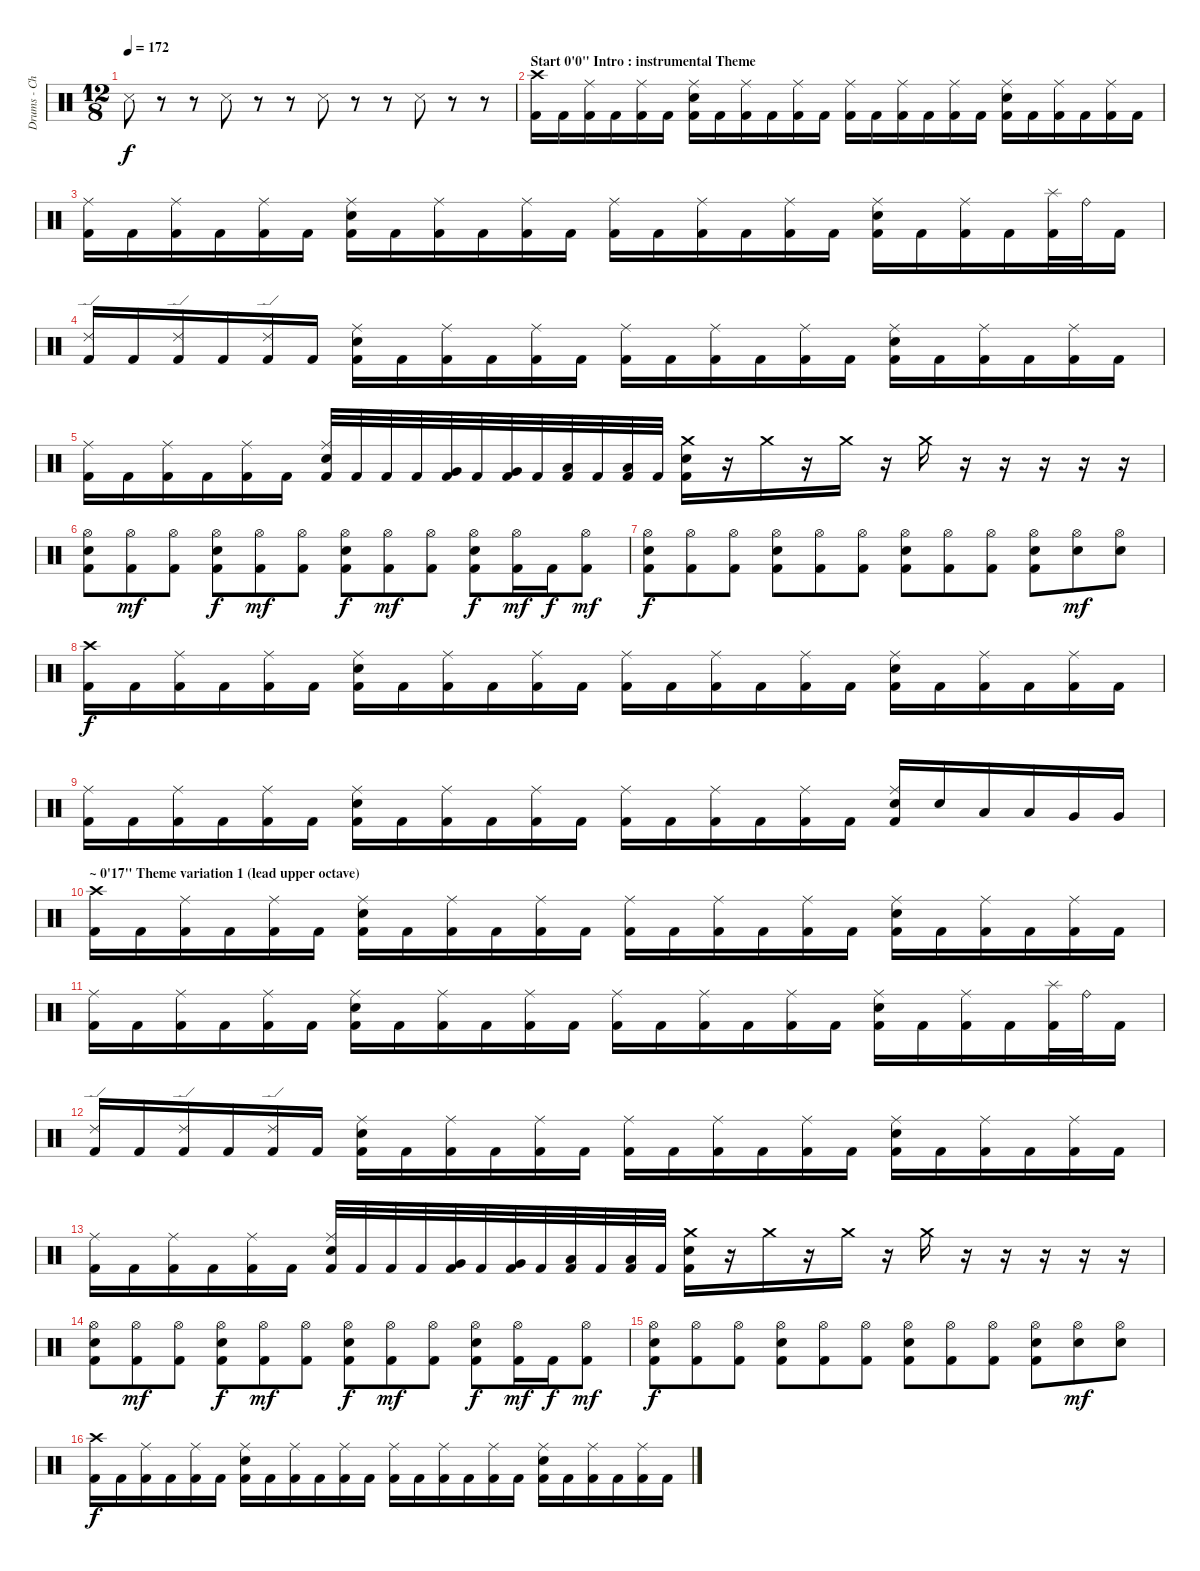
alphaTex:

\track ("Drums - Christopher Merzinsky" "Drums - Ch") {instrument percussion}
\staff {score}
\articulation defaults
\ts (12 8)
\tempo 172
\clef neutral
\ks c "Snare (side stick) 3".8{dy f}
r.8 r.8 "Snare (side stick) 3".8 r.8 r.8 "Snare (side stick) 3".8 r.8 r.8 "Snare (side stick) 3".8 r.8 r.8 |
\section ("" "Start 0'0\" Intro : instrumental Theme")
("Kick (hit) 2" "Crash high (hit)").16 "Kick (hit) 2".16 ("Kick (hit) 2" "Ride (middle)").16 "Kick (hit) 2".16 ("Kick (hit) 2" "Ride (middle)").16 "Kick (hit) 2".16 ("Kick (hit) 2" "Electric Snare (hit)" "Ride (middle)").16 "Kick (hit) 2".16 ("Kick (hit) 2" "Ride (middle)").16 "Kick (hit) 2".16 ("Kick (hit) 2" "Ride (middle)").16 "Kick (hit) 2".16 ("Kick (hit) 2" "Ride (middle)").16 "Kick (hit) 2".16 ("Kick (hit) 2" "Ride (middle)").16 "Kick (hit) 2".16 ("Kick (hit) 2" "Ride (middle)").16 "Kick (hit) 2".16 ("Kick (hit) 2" "Electric Snare (hit)" "Ride (middle)").16 "Kick (hit) 2".16 ("Kick (hit) 2" "Ride (middle)").16 "Kick (hit) 2".16 ("Kick (hit) 2" "Ride (middle)").16 "Kick (hit) 2".16 |
("Kick (hit) 2" "Ride (middle)").16 "Kick (hit) 2".16 ("Kick (hit) 2" "Ride (middle)").16 "Kick (hit) 2".16 ("Kick (hit) 2" "Ride (middle)").16 "Kick (hit) 2".16 ("Kick (hit) 2" "Electric Snare (hit)" "Ride (middle)").16 "Kick (hit) 2".16 ("Kick (hit) 2" "Ride (middle)").16 "Kick (hit) 2".16 ("Kick (hit) 2" "Ride (middle)").16 "Kick (hit) 2".16 ("Kick (hit) 2" "Ride (middle)").16 "Kick (hit) 2".16 ("Kick (hit) 2" "Ride (middle)").16 "Kick (hit) 2".16 ("Kick (hit) 2" "Ride (middle)").16 "Kick (hit) 2".16 ("Kick (hit) 2" "Electric Snare (hit)" "Ride (middle)").16 "Kick (hit) 2".16 ("Kick (hit) 2" "Ride (middle)").16 "Kick (hit) 2".16 ("Kick (hit) 2" "Splash (hit)").32 "Ride (bell)".32 "Kick (hit) 2".16 |
("Kick (hit) 2" "Ride (edge) 2").16 "Kick (hit) 2".16 ("Kick (hit) 2" "Ride (edge) 2").16 "Kick (hit) 2".16 ("Kick (hit) 2" "Ride (edge) 2").16 "Kick (hit) 2".16 ("Kick (hit) 2" "Electric Snare (hit)" "Ride (middle)").16 "Kick (hit) 2".16 ("Kick (hit) 2" "Ride (middle)").16 "Kick (hit) 2".16 ("Kick (hit) 2" "Ride (middle)").16 "Kick (hit) 2".16 ("Kick (hit) 2" "Ride (middle)").16 "Kick (hit) 2".16 ("Kick (hit) 2" "Ride (middle)").16 "Kick (hit) 2".16 ("Kick (hit) 2" "Ride (middle)").16 "Kick (hit) 2".16 ("Kick (hit) 2" "Electric Snare (hit)" "Ride (middle)").16 "Kick (hit) 2".16 ("Kick (hit) 2" "Ride (middle)").16 "Kick (hit) 2".16 ("Kick (hit) 2" "Ride (middle)").16 "Kick (hit) 2".16 |
("Kick (hit) 2" "Ride (middle)").16 "Kick (hit) 2".16 ("Kick (hit) 2" "Ride (middle)").16 "Kick (hit) 2".16 ("Kick (hit) 2" "Ride (middle)").16 "Kick (hit) 2".16 ("Kick (hit) 2" "Electric Snare (hit)" "Ride (middle)").32 "Kick (hit) 2".32 "Kick (hit) 2".32 "Kick (hit) 2".32 ("Kick (hit) 2" "Very Low Tom (hit)").32 "Kick (hit) 2".32 ("Kick (hit) 2" "Very Low Tom (hit)").32 "Kick (hit) 2".32 ("Kick (hit) 2" "Low Floor Tom (hit)").32 "Kick (hit) 2".32 ("Kick (hit) 2" "Low Floor Tom (hit)").32 "Kick (hit) 2".32 ("Electric Snare (hit)" "Kick (hit) 2" "Crash medium (hit)").16 r.16 "Crash medium (hit)".16 r.16 "Crash medium (hit)".16 r.16 "Crash medium (hit)".16 r.16 r.16 r.16 r.16 r.16 |
("Electric Snare (hit)" "Kick (hit) 2" "Hi-Hat (open)").8 ("Kick (hit) 2" "Hi-Hat (open)").8{dy mf} ("Kick (hit) 2" "Hi-Hat (open)").8 ("Electric Snare (hit)" "Kick (hit) 2" "Hi-Hat (open)").8{dy f} ("Kick (hit) 2" "Hi-Hat (open)").8{dy mf} ("Kick (hit) 2" "Hi-Hat (open)").8 ("Electric Snare (hit)" "Kick (hit) 2" "Hi-Hat (open)").8{dy f} ("Kick (hit) 2" "Hi-Hat (open)").8{dy mf} ("Kick (hit) 2" "Hi-Hat (open)").8 ("Electric Snare (hit)" "Kick (hit) 2" "Hi-Hat (open)").8{dy f} ("Kick (hit) 2" "Hi-Hat (open)").16{dy mf} "Kick (hit) 2".16{dy f} ("Kick (hit) 2" "Hi-Hat (open)").8{dy mf} |
("Electric Snare (hit)" "Hi-Hat (open)" "Kick (hit) 2").8{dy f} ("Hi-Hat (open)" "Kick (hit) 2").8 ("Hi-Hat (open)" "Kick (hit) 2").8 ("Electric Snare (hit)" "Hi-Hat (open)" "Kick (hit) 2").8 ("Hi-Hat (open)" "Kick (hit) 2").8 ("Hi-Hat (open)" "Kick (hit) 2").8 ("Electric Snare (hit)" "Hi-Hat (open)" "Kick (hit) 2").8 ("Hi-Hat (open)" "Kick (hit) 2").8 ("Hi-Hat (open)" "Kick (hit) 2").8 ("Electric Snare (hit)" "Hi-Hat (open)" "Kick (hit) 2").8 ("Electric Snare (hit)" "Hi-Hat (open)").8{dy mf} ("Electric Snare (hit)" "Hi-Hat (open)").8 |
("Kick (hit) 2" "Crash high (hit)").16{dy f} "Kick (hit) 2".16 ("Kick (hit) 2" "Ride (middle)").16 "Kick (hit) 2".16 ("Kick (hit) 2" "Ride (middle)").16 "Kick (hit) 2".16 ("Kick (hit) 2" "Electric Snare (hit)" "Ride (middle)").16 "Kick (hit) 2".16 ("Kick (hit) 2" "Ride (middle)").16 "Kick (hit) 2".16 ("Kick (hit) 2" "Ride (middle)").16 "Kick (hit) 2".16 ("Kick (hit) 2" "Ride (middle)").16 "Kick (hit) 2".16 ("Kick (hit) 2" "Ride (middle)").16 "Kick (hit) 2".16 ("Kick (hit) 2" "Ride (middle)").16 "Kick (hit) 2".16 ("Kick (hit) 2" "Electric Snare (hit)" "Ride (middle)").16 "Kick (hit) 2".16 ("Kick (hit) 2" "Ride (middle)").16 "Kick (hit) 2".16 ("Kick (hit) 2" "Ride (middle)").16 "Kick (hit) 2".16 |
("Kick (hit) 2" "Ride (middle)").16 "Kick (hit) 2".16 ("Kick (hit) 2" "Ride (middle)").16 "Kick (hit) 2".16 ("Kick (hit) 2" "Ride (middle)").16 "Kick (hit) 2".16 ("Kick (hit) 2" "Electric Snare (hit)" "Ride (middle)").16 "Kick (hit) 2".16 ("Kick (hit) 2" "Ride (middle)").16 "Kick (hit) 2".16 ("Kick (hit) 2" "Ride (middle)").16 "Kick (hit) 2".16 ("Kick (hit) 2" "Ride (middle)").16 "Kick (hit) 2".16 ("Kick (hit) 2" "Ride (middle)").16 "Kick (hit) 2".16 ("Kick (hit) 2" "Ride (middle)").16 "Kick (hit) 2".16 ("Kick (hit) 2" "Electric Snare (hit)" "Ride (middle)").16 "Electric Snare (hit)".16 "Low Tom (hit)".16 "Low Tom (hit)".16 "Very Low Tom (hit)".16 "Very Low Tom (hit)".16 |
\section ("" "~ 0'17\" Theme variation 1 (lead upper octave)")
("Kick (hit) 2" "Crash high (hit)").16 "Kick (hit) 2".16 ("Kick (hit) 2" "Ride (middle)").16 "Kick (hit) 2".16 ("Kick (hit) 2" "Ride (middle)").16 "Kick (hit) 2".16 ("Kick (hit) 2" "Electric Snare (hit)" "Ride (middle)").16 "Kick (hit) 2".16 ("Kick (hit) 2" "Ride (middle)").16 "Kick (hit) 2".16 ("Kick (hit) 2" "Ride (middle)").16 "Kick (hit) 2".16 ("Kick (hit) 2" "Ride (middle)").16 "Kick (hit) 2".16 ("Kick (hit) 2" "Ride (middle)").16 "Kick (hit) 2".16 ("Kick (hit) 2" "Ride (middle)").16 "Kick (hit) 2".16 ("Kick (hit) 2" "Electric Snare (hit)" "Ride (middle)").16 "Kick (hit) 2".16 ("Kick (hit) 2" "Ride (middle)").16 "Kick (hit) 2".16 ("Kick (hit) 2" "Ride (middle)").16 "Kick (hit) 2".16 |
("Kick (hit) 2" "Ride (middle)").16 "Kick (hit) 2".16 ("Kick (hit) 2" "Ride (middle)").16 "Kick (hit) 2".16 ("Kick (hit) 2" "Ride (middle)").16 "Kick (hit) 2".16 ("Kick (hit) 2" "Electric Snare (hit)" "Ride (middle)").16 "Kick (hit) 2".16 ("Kick (hit) 2" "Ride (middle)").16 "Kick (hit) 2".16 ("Kick (hit) 2" "Ride (middle)").16 "Kick (hit) 2".16 ("Kick (hit) 2" "Ride (middle)").16 "Kick (hit) 2".16 ("Kick (hit) 2" "Ride (middle)").16 "Kick (hit) 2".16 ("Kick (hit) 2" "Ride (middle)").16 "Kick (hit) 2".16 ("Kick (hit) 2" "Electric Snare (hit)" "Ride (middle)").16 "Kick (hit) 2".16 ("Kick (hit) 2" "Ride (middle)").16 "Kick (hit) 2".16 ("Kick (hit) 2" "Splash (hit)").32 "Ride (bell)".32 "Kick (hit) 2".16 |
("Kick (hit) 2" "Ride (edge) 2").16 "Kick (hit) 2".16 ("Kick (hit) 2" "Ride (edge) 2").16 "Kick (hit) 2".16 ("Kick (hit) 2" "Ride (edge) 2").16 "Kick (hit) 2".16 ("Kick (hit) 2" "Electric Snare (hit)" "Ride (middle)").16 "Kick (hit) 2".16 ("Kick (hit) 2" "Ride (middle)").16 "Kick (hit) 2".16 ("Kick (hit) 2" "Ride (middle)").16 "Kick (hit) 2".16 ("Kick (hit) 2" "Ride (middle)").16 "Kick (hit) 2".16 ("Kick (hit) 2" "Ride (middle)").16 "Kick (hit) 2".16 ("Kick (hit) 2" "Ride (middle)").16 "Kick (hit) 2".16 ("Kick (hit) 2" "Electric Snare (hit)" "Ride (middle)").16 "Kick (hit) 2".16 ("Kick (hit) 2" "Ride (middle)").16 "Kick (hit) 2".16 ("Kick (hit) 2" "Ride (middle)").16 "Kick (hit) 2".16 |
("Kick (hit) 2" "Ride (middle)").16 "Kick (hit) 2".16 ("Kick (hit) 2" "Ride (middle)").16 "Kick (hit) 2".16 ("Kick (hit) 2" "Ride (middle)").16 "Kick (hit) 2".16 ("Kick (hit) 2" "Electric Snare (hit)" "Ride (middle)").32 "Kick (hit) 2".32 "Kick (hit) 2".32 "Kick (hit) 2".32 ("Kick (hit) 2" "Very Low Tom (hit)").32 "Kick (hit) 2".32 ("Kick (hit) 2" "Very Low Tom (hit)").32 "Kick (hit) 2".32 ("Kick (hit) 2" "Low Floor Tom (hit)").32 "Kick (hit) 2".32 ("Kick (hit) 2" "Low Floor Tom (hit)").32 "Kick (hit) 2".32 ("Electric Snare (hit)" "Kick (hit) 2" "Crash medium (hit)").16 r.16 "Crash medium (hit)".16 r.16 "Crash medium (hit)".16 r.16 "Crash medium (hit)".16 r.16 r.16 r.16 r.16 r.16 |
("Electric Snare (hit)" "Kick (hit) 2" "Hi-Hat (open)").8 ("Kick (hit) 2" "Hi-Hat (open)").8{dy mf} ("Kick (hit) 2" "Hi-Hat (open)").8 ("Electric Snare (hit)" "Kick (hit) 2" "Hi-Hat (open)").8{dy f} ("Kick (hit) 2" "Hi-Hat (open)").8{dy mf} ("Kick (hit) 2" "Hi-Hat (open)").8 ("Electric Snare (hit)" "Kick (hit) 2" "Hi-Hat (open)").8{dy f} ("Kick (hit) 2" "Hi-Hat (open)").8{dy mf} ("Kick (hit) 2" "Hi-Hat (open)").8 ("Electric Snare (hit)" "Kick (hit) 2" "Hi-Hat (open)").8{dy f} ("Kick (hit) 2" "Hi-Hat (open)").16{dy mf} "Kick (hit) 2".16{dy f} ("Kick (hit) 2" "Hi-Hat (open)").8{dy mf} |
("Electric Snare (hit)" "Hi-Hat (open)" "Kick (hit) 2").8{dy f} ("Hi-Hat (open)" "Kick (hit) 2").8 ("Hi-Hat (open)" "Kick (hit) 2").8 ("Electric Snare (hit)" "Hi-Hat (open)" "Kick (hit) 2").8 ("Hi-Hat (open)" "Kick (hit) 2").8 ("Hi-Hat (open)" "Kick (hit) 2").8 ("Electric Snare (hit)" "Hi-Hat (open)" "Kick (hit) 2").8 ("Hi-Hat (open)" "Kick (hit) 2").8 ("Hi-Hat (open)" "Kick (hit) 2").8 ("Electric Snare (hit)" "Hi-Hat (open)" "Kick (hit) 2").8 ("Electric Snare (hit)" "Hi-Hat (open)").8{dy mf} ("Electric Snare (hit)" "Hi-Hat (open)").8 |
("Kick (hit) 2" "Crash high (hit)").16{dy f} "Kick (hit) 2".16 ("Kick (hit) 2" "Ride (middle)").16 "Kick (hit) 2".16 ("Kick (hit) 2" "Ride (middle)").16 "Kick (hit) 2".16 ("Kick (hit) 2" "Electric Snare (hit)" "Ride (middle)").16 "Kick (hit) 2".16 ("Kick (hit) 2" "Ride (middle)").16 "Kick (hit) 2".16 ("Kick (hit) 2" "Ride (middle)").16 "Kick (hit) 2".16 ("Kick (hit) 2" "Ride (middle)").16 "Kick (hit) 2".16 ("Kick (hit) 2" "Ride (middle)").16 "Kick (hit) 2".16 ("Kick (hit) 2" "Ride (middle)").16 "Kick (hit) 2".16 ("Kick (hit) 2" "Electric Snare (hit)" "Ride (middle)").16 "Kick (hit) 2".16 ("Kick (hit) 2" "Ride (middle)").16 "Kick (hit) 2".16 ("Kick (hit) 2" "Ride (middle)").16 "Kick (hit) 2".16
